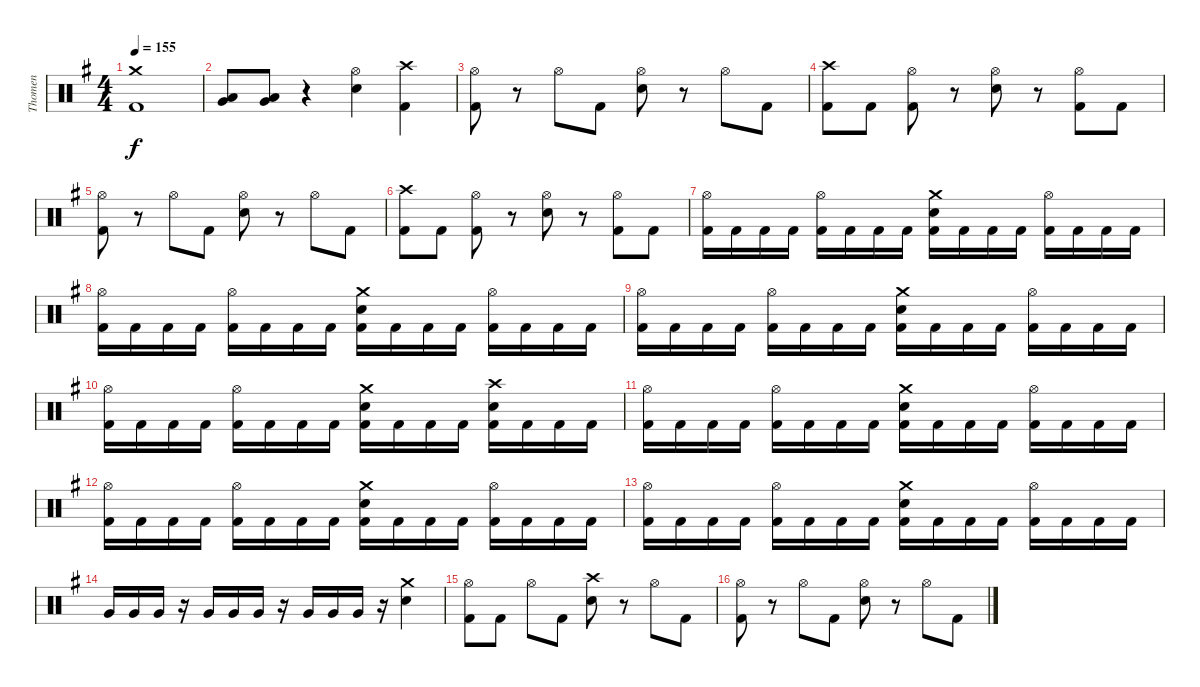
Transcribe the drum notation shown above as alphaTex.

\track ("Thomen" "Thomen") {instrument percussion}
\staff {score}
\articulation defaults
\ts (4 4)
\tempo 155
\clef neutral
\ks g
("Crash medium (hit)" "Kick (hit) 2").1{dy f} |
("Low Tom (hit)" "Very Low Tom (hit)").8 ("Low Tom (hit)" "Very Low Tom (hit)").8 r.4 ("Hi-Hat (open)" "Electric Snare (hit)").4 ("Crash high (hit)" "Kick (hit) 2").4 |
("Hi-Hat (open)" "Kick (hit) 2").8 r.8 "Hi-Hat (open)".8 "Kick (hit) 2".8 ("Hi-Hat (open)" "Electric Snare (hit)").8 r.8 "Hi-Hat (open)".8 "Kick (hit) 2".8 |
("Crash high (hit)" "Kick (hit) 2").8 "Kick (hit) 2".8 ("Hi-Hat (open)" "Kick (hit) 2").8 r.8 ("Hi-Hat (open)" "Electric Snare (hit)").8 r.8 ("Hi-Hat (open)" "Kick (hit) 2").8 "Kick (hit) 2".8 |
("Hi-Hat (open)" "Kick (hit) 2").8 r.8 "Hi-Hat (open)".8 "Kick (hit) 2".8 ("Hi-Hat (open)" "Electric Snare (hit)").8 r.8 "Hi-Hat (open)".8 "Kick (hit) 2".8 |
("Crash high (hit)" "Kick (hit) 2").8 "Kick (hit) 2".8 ("Hi-Hat (open)" "Kick (hit) 2").8 r.8 ("Hi-Hat (open)" "Electric Snare (hit)").8 r.8 ("Hi-Hat (open)" "Kick (hit) 2").8 "Kick (hit) 2".8 |
("Hi-Hat (open)" "Kick (hit) 2").16 "Kick (hit) 2".16 "Kick (hit) 2".16 "Kick (hit) 2".16 ("Hi-Hat (open)" "Kick (hit) 2").16 "Kick (hit) 2".16 "Kick (hit) 2".16 "Kick (hit) 2".16 ("Crash medium (hit)" "Electric Snare (hit)" "Kick (hit) 2").16 "Kick (hit) 2".16 "Kick (hit) 2".16 "Kick (hit) 2".16 ("Hi-Hat (open)" "Kick (hit) 2").16 "Kick (hit) 2".16 "Kick (hit) 2".16 "Kick (hit) 2".16 |
("Hi-Hat (open)" "Kick (hit) 2").16 "Kick (hit) 2".16 "Kick (hit) 2".16 "Kick (hit) 2".16 ("Hi-Hat (open)" "Kick (hit) 2").16 "Kick (hit) 2".16 "Kick (hit) 2".16 "Kick (hit) 2".16 ("Crash medium (hit)" "Electric Snare (hit)" "Kick (hit) 2").16 "Kick (hit) 2".16 "Kick (hit) 2".16 "Kick (hit) 2".16 ("Hi-Hat (open)" "Kick (hit) 2").16 "Kick (hit) 2".16 "Kick (hit) 2".16 "Kick (hit) 2".16 |
("Hi-Hat (open)" "Kick (hit) 2").16 "Kick (hit) 2".16 "Kick (hit) 2".16 "Kick (hit) 2".16 ("Hi-Hat (open)" "Kick (hit) 2").16 "Kick (hit) 2".16 "Kick (hit) 2".16 "Kick (hit) 2".16 ("Crash medium (hit)" "Electric Snare (hit)" "Kick (hit) 2").16 "Kick (hit) 2".16 "Kick (hit) 2".16 "Kick (hit) 2".16 ("Hi-Hat (open)" "Kick (hit) 2").16 "Kick (hit) 2".16 "Kick (hit) 2".16 "Kick (hit) 2".16 |
("Hi-Hat (open)" "Kick (hit) 2").16 "Kick (hit) 2".16 "Kick (hit) 2".16 "Kick (hit) 2".16 ("Hi-Hat (open)" "Kick (hit) 2").16 "Kick (hit) 2".16 "Kick (hit) 2".16 "Kick (hit) 2".16 ("Crash medium (hit)" "Electric Snare (hit)" "Kick (hit) 2").16 "Kick (hit) 2".16 "Kick (hit) 2".16 "Kick (hit) 2".16 ("Crash high (hit)" "Electric Snare (hit)" "Kick (hit) 2").16 "Kick (hit) 2".16 "Kick (hit) 2".16 "Kick (hit) 2".16 |
("Hi-Hat (open)" "Kick (hit) 2").16 "Kick (hit) 2".16 "Kick (hit) 2".16 "Kick (hit) 2".16 ("Hi-Hat (open)" "Kick (hit) 2").16 "Kick (hit) 2".16 "Kick (hit) 2".16 "Kick (hit) 2".16 ("Crash medium (hit)" "Electric Snare (hit)" "Kick (hit) 2").16 "Kick (hit) 2".16 "Kick (hit) 2".16 "Kick (hit) 2".16 ("Hi-Hat (open)" "Kick (hit) 2").16 "Kick (hit) 2".16 "Kick (hit) 2".16 "Kick (hit) 2".16 |
("Hi-Hat (open)" "Kick (hit) 2").16 "Kick (hit) 2".16 "Kick (hit) 2".16 "Kick (hit) 2".16 ("Hi-Hat (open)" "Kick (hit) 2").16 "Kick (hit) 2".16 "Kick (hit) 2".16 "Kick (hit) 2".16 ("Crash medium (hit)" "Electric Snare (hit)" "Kick (hit) 2").16 "Kick (hit) 2".16 "Kick (hit) 2".16 "Kick (hit) 2".16 ("Hi-Hat (open)" "Kick (hit) 2").16 "Kick (hit) 2".16 "Kick (hit) 2".16 "Kick (hit) 2".16 |
("Hi-Hat (open)" "Kick (hit) 2").16 "Kick (hit) 2".16 "Kick (hit) 2".16 "Kick (hit) 2".16 ("Hi-Hat (open)" "Kick (hit) 2").16 "Kick (hit) 2".16 "Kick (hit) 2".16 "Kick (hit) 2".16 ("Crash medium (hit)" "Electric Snare (hit)" "Kick (hit) 2").16 "Kick (hit) 2".16 "Kick (hit) 2".16 "Kick (hit) 2".16 ("Hi-Hat (open)" "Kick (hit) 2").16 "Kick (hit) 2".16 "Kick (hit) 2".16 "Kick (hit) 2".16 |
"Very Low Tom (hit)".16 "Very Low Tom (hit)".16 "Very Low Tom (hit)".16 r.16 "Very Low Tom (hit)".16 "Very Low Tom (hit)".16 "Very Low Tom (hit)".16 r.16 "Very Low Tom (hit)".16 "Very Low Tom (hit)".16 "Very Low Tom (hit)".16 r.16 ("Crash medium (hit)" "Electric Snare (hit)").4 |
("Hi-Hat (open)" "Kick (hit) 2").8 "Kick (hit) 2".8 "Hi-Hat (open)".8 "Kick (hit) 2".8 ("Crash high (hit)" "Electric Snare (hit)").8 r.8 "Hi-Hat (open)".8 "Kick (hit) 2".8 |
("Hi-Hat (open)" "Kick (hit) 2").8 r.8 "Hi-Hat (open)".8 "Kick (hit) 2".8 ("Hi-Hat (open)" "Electric Snare (hit)").8 r.8 "Hi-Hat (open)".8 "Kick (hit) 2".8
